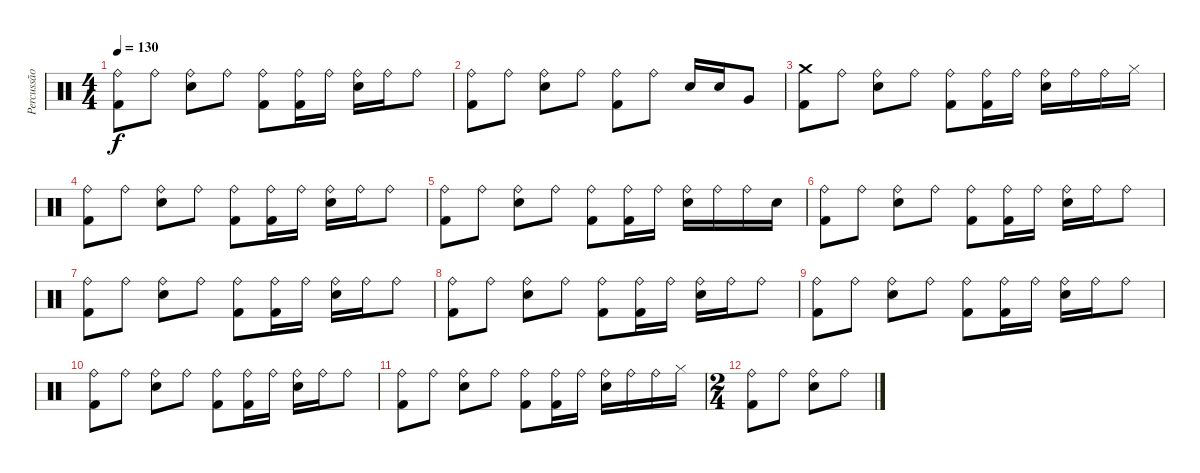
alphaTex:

\track ("Percussão" "Percussão") {instrument percussion}
\staff {score}
\articulation defaults
\ts (4 4)
\tempo 130
\clef neutral
\ks c
("Ride (bell)" "Kick (hit) 2").8{dy f} "Ride (bell)".8 ("Ride (bell)" "Electric Snare (hit)").8 "Ride (bell)".8 ("Ride (bell)" "Kick (hit) 2").8 ("Ride (bell)" "Kick (hit) 2").16 "Ride (bell)".16 ("Ride (bell)" "Electric Snare (hit)").16 "Ride (bell)".16 "Ride (bell)".8 |
("Ride (bell)" "Kick (hit) 2").8 "Ride (bell)".8 ("Ride (bell)" "Electric Snare (hit)").8 "Ride (bell)".8 ("Ride (bell)" "Kick (hit) 2").8 "Ride (bell)".8 "Electric Snare (hit)".16 "Electric Snare (hit)".16 "Very Low Tom (hit)".8 |
("Crash medium (hit)" "Kick (hit) 2").8 "Ride (bell)".8 ("Ride (bell)" "Electric Snare (hit)").8 "Ride (bell)".8 ("Ride (bell)" "Kick (hit) 2").8 ("Ride (bell)" "Kick (hit) 2").16 "Ride (bell)".16 ("Ride (bell)" "Electric Snare (hit)").16 "Ride (bell)".16 "Ride (bell)".16 "Hi-Hat (closed)".16 |
("Ride (bell)" "Kick (hit) 2").8 "Ride (bell)".8 ("Ride (bell)" "Electric Snare (hit)").8 "Ride (bell)".8 ("Ride (bell)" "Kick (hit) 2").8 ("Ride (bell)" "Kick (hit) 2").16 "Ride (bell)".16 ("Ride (bell)" "Electric Snare (hit)").16 "Ride (bell)".16 "Ride (bell)".8 |
("Ride (bell)" "Kick (hit) 2").8 "Ride (bell)".8 ("Ride (bell)" "Electric Snare (hit)").8 "Ride (bell)".8 ("Ride (bell)" "Kick (hit) 2").8 ("Ride (bell)" "Kick (hit) 2").16 "Ride (bell)".16 ("Ride (bell)" "Electric Snare (hit)").16 "Ride (bell)".16 "Ride (bell)".16 "Electric Snare (hit)".16 |
("Ride (bell)" "Kick (hit) 2").8 "Ride (bell)".8 ("Ride (bell)" "Electric Snare (hit)").8 "Ride (bell)".8 ("Ride (bell)" "Kick (hit) 2").8 ("Ride (bell)" "Kick (hit) 2").16 "Ride (bell)".16 ("Ride (bell)" "Electric Snare (hit)").16 "Ride (bell)".16 "Ride (bell)".8 |
("Ride (bell)" "Kick (hit) 2").8 "Ride (bell)".8 ("Ride (bell)" "Electric Snare (hit)").8 "Ride (bell)".8 ("Ride (bell)" "Kick (hit) 2").8 ("Ride (bell)" "Kick (hit) 2").16 "Ride (bell)".16 ("Ride (bell)" "Electric Snare (hit)").16 "Ride (bell)".16 "Ride (bell)".8 |
("Ride (bell)" "Kick (hit) 2").8 "Ride (bell)".8 ("Ride (bell)" "Electric Snare (hit)").8 "Ride (bell)".8 ("Ride (bell)" "Kick (hit) 2").8 ("Ride (bell)" "Kick (hit) 2").16 "Ride (bell)".16 ("Ride (bell)" "Electric Snare (hit)").16 "Ride (bell)".16 "Ride (bell)".8 |
("Ride (bell)" "Kick (hit) 2").8 "Ride (bell)".8 ("Ride (bell)" "Electric Snare (hit)").8 "Ride (bell)".8 ("Ride (bell)" "Kick (hit) 2").8 ("Ride (bell)" "Kick (hit) 2").16 "Ride (bell)".16 ("Ride (bell)" "Electric Snare (hit)").16 "Ride (bell)".16 "Ride (bell)".8 |
("Ride (bell)" "Kick (hit) 2").8 "Ride (bell)".8 ("Ride (bell)" "Electric Snare (hit)").8 "Ride (bell)".8 ("Ride (bell)" "Kick (hit) 2").8 ("Ride (bell)" "Kick (hit) 2").16 "Ride (bell)".16 ("Ride (bell)" "Electric Snare (hit)").16 "Ride (bell)".16 "Ride (bell)".8 |
("Ride (bell)" "Kick (hit) 2").8 "Ride (bell)".8 ("Ride (bell)" "Electric Snare (hit)").8 "Ride (bell)".8 ("Ride (bell)" "Kick (hit) 2").8 ("Ride (bell)" "Kick (hit) 2").16 "Ride (bell)".16 ("Ride (bell)" "Electric Snare (hit)").16 "Ride (bell)".16 "Ride (bell)".16 "Hi-Hat (closed)".16 |
\ts (2 4)
("Ride (bell)" "Kick (hit) 2").8 "Ride (bell)".8 ("Ride (bell)" "Electric Snare (hit)").8 "Ride (bell)".8
